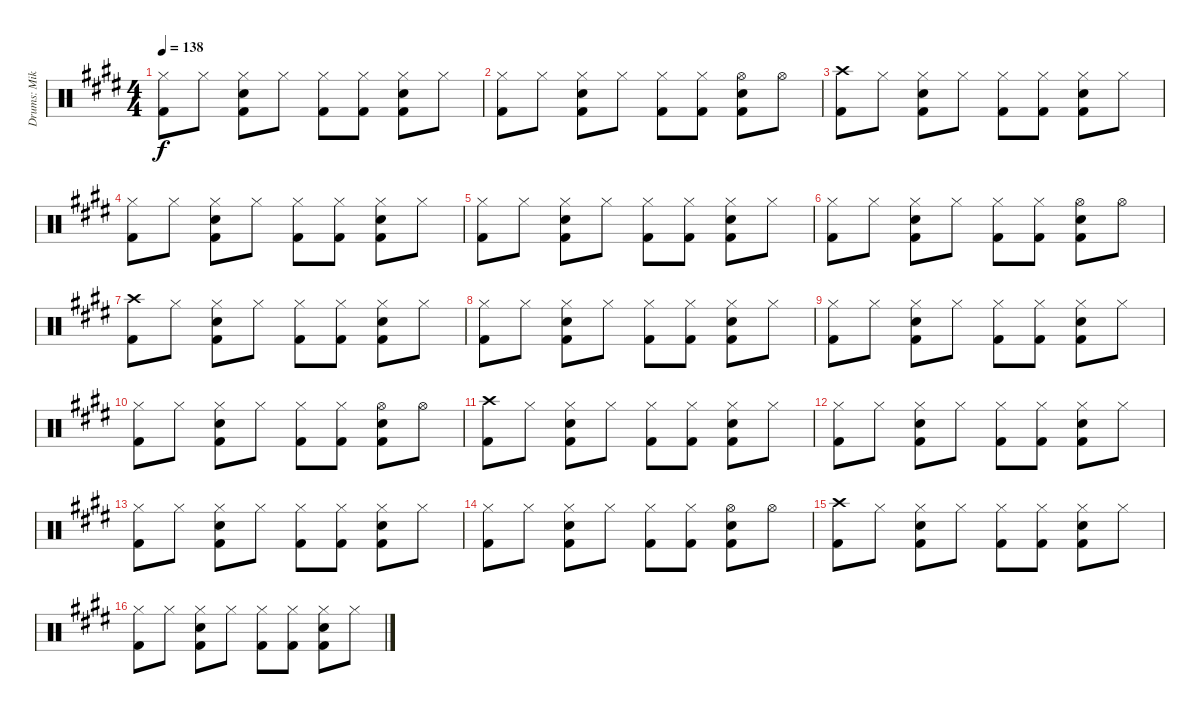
\track ("Drums: Mike" "Drums: Mik") {instrument percussion}
\staff {score}
\articulation defaults
\ts (4 4)
\tempo 138
\clef neutral
\ks e
("Hi-Hat (closed)" "Kick (hit) 2").8{dy f} "Hi-Hat (closed)".8 ("Hi-Hat (closed)" "Electric Snare (hit)" "Kick (hit) 2").8 "Hi-Hat (closed)".8 ("Hi-Hat (closed)" "Kick (hit) 2").8 ("Hi-Hat (closed)" "Kick (hit) 2").8 ("Hi-Hat (closed)" "Electric Snare (hit)" "Kick (hit) 2").8 "Hi-Hat (closed)".8 |
("Hi-Hat (closed)" "Kick (hit) 2").8 "Hi-Hat (closed)".8 ("Hi-Hat (closed)" "Electric Snare (hit)" "Kick (hit) 2").8 "Hi-Hat (closed)".8 ("Hi-Hat (closed)" "Kick (hit) 2").8 ("Hi-Hat (closed)" "Kick (hit) 2").8 ("Hi-Hat (open)" "Electric Snare (hit)" "Kick (hit) 2").8 "Hi-Hat (open)".8 |
("Crash high (hit)" "Kick (hit) 2").8 "Hi-Hat (closed)".8 ("Hi-Hat (closed)" "Electric Snare (hit)" "Kick (hit) 2").8 "Hi-Hat (closed)".8 ("Hi-Hat (closed)" "Kick (hit) 2").8 ("Hi-Hat (closed)" "Kick (hit) 2").8 ("Hi-Hat (closed)" "Electric Snare (hit)" "Kick (hit) 2").8 "Hi-Hat (closed)".8 |
("Hi-Hat (closed)" "Kick (hit) 2").8 "Hi-Hat (closed)".8 ("Hi-Hat (closed)" "Electric Snare (hit)" "Kick (hit) 2").8 "Hi-Hat (closed)".8 ("Hi-Hat (closed)" "Kick (hit) 2").8 ("Hi-Hat (closed)" "Kick (hit) 2").8 ("Hi-Hat (closed)" "Electric Snare (hit)" "Kick (hit) 2").8 "Hi-Hat (closed)".8 |
("Hi-Hat (closed)" "Kick (hit) 2").8 "Hi-Hat (closed)".8 ("Hi-Hat (closed)" "Electric Snare (hit)" "Kick (hit) 2").8 "Hi-Hat (closed)".8 ("Hi-Hat (closed)" "Kick (hit) 2").8 ("Hi-Hat (closed)" "Kick (hit) 2").8 ("Hi-Hat (closed)" "Electric Snare (hit)" "Kick (hit) 2").8 "Hi-Hat (closed)".8 |
("Hi-Hat (closed)" "Kick (hit) 2").8 "Hi-Hat (closed)".8 ("Hi-Hat (closed)" "Electric Snare (hit)" "Kick (hit) 2").8 "Hi-Hat (closed)".8 ("Hi-Hat (closed)" "Kick (hit) 2").8 ("Hi-Hat (closed)" "Kick (hit) 2").8 ("Hi-Hat (open)" "Electric Snare (hit)" "Kick (hit) 2").8 "Hi-Hat (open)".8 |
("Crash high (hit)" "Kick (hit) 2").8 "Hi-Hat (closed)".8 ("Hi-Hat (closed)" "Electric Snare (hit)" "Kick (hit) 2").8 "Hi-Hat (closed)".8 ("Hi-Hat (closed)" "Kick (hit) 2").8 ("Hi-Hat (closed)" "Kick (hit) 2").8 ("Hi-Hat (closed)" "Electric Snare (hit)" "Kick (hit) 2").8 "Hi-Hat (closed)".8 |
("Hi-Hat (closed)" "Kick (hit) 2").8 "Hi-Hat (closed)".8 ("Hi-Hat (closed)" "Electric Snare (hit)" "Kick (hit) 2").8 "Hi-Hat (closed)".8 ("Hi-Hat (closed)" "Kick (hit) 2").8 ("Hi-Hat (closed)" "Kick (hit) 2").8 ("Hi-Hat (closed)" "Electric Snare (hit)" "Kick (hit) 2").8 "Hi-Hat (closed)".8 |
("Hi-Hat (closed)" "Kick (hit) 2").8 "Hi-Hat (closed)".8 ("Hi-Hat (closed)" "Electric Snare (hit)" "Kick (hit) 2").8 "Hi-Hat (closed)".8 ("Hi-Hat (closed)" "Kick (hit) 2").8 ("Hi-Hat (closed)" "Kick (hit) 2").8 ("Hi-Hat (closed)" "Electric Snare (hit)" "Kick (hit) 2").8 "Hi-Hat (closed)".8 |
("Hi-Hat (closed)" "Kick (hit) 2").8 "Hi-Hat (closed)".8 ("Hi-Hat (closed)" "Electric Snare (hit)" "Kick (hit) 2").8 "Hi-Hat (closed)".8 ("Hi-Hat (closed)" "Kick (hit) 2").8 ("Hi-Hat (closed)" "Kick (hit) 2").8 ("Hi-Hat (open)" "Electric Snare (hit)" "Kick (hit) 2").8 "Hi-Hat (open)".8 |
("Crash high (hit)" "Kick (hit) 2").8 "Hi-Hat (closed)".8 ("Hi-Hat (closed)" "Electric Snare (hit)" "Kick (hit) 2").8 "Hi-Hat (closed)".8 ("Hi-Hat (closed)" "Kick (hit) 2").8 ("Hi-Hat (closed)" "Kick (hit) 2").8 ("Hi-Hat (closed)" "Electric Snare (hit)" "Kick (hit) 2").8 "Hi-Hat (closed)".8 |
("Hi-Hat (closed)" "Kick (hit) 2").8 "Hi-Hat (closed)".8 ("Hi-Hat (closed)" "Electric Snare (hit)" "Kick (hit) 2").8 "Hi-Hat (closed)".8 ("Hi-Hat (closed)" "Kick (hit) 2").8 ("Hi-Hat (closed)" "Kick (hit) 2").8 ("Hi-Hat (closed)" "Electric Snare (hit)" "Kick (hit) 2").8 "Hi-Hat (closed)".8 |
("Hi-Hat (closed)" "Kick (hit) 2").8 "Hi-Hat (closed)".8 ("Hi-Hat (closed)" "Electric Snare (hit)" "Kick (hit) 2").8 "Hi-Hat (closed)".8 ("Hi-Hat (closed)" "Kick (hit) 2").8 ("Hi-Hat (closed)" "Kick (hit) 2").8 ("Hi-Hat (closed)" "Electric Snare (hit)" "Kick (hit) 2").8 "Hi-Hat (closed)".8 |
("Hi-Hat (closed)" "Kick (hit) 2").8 "Hi-Hat (closed)".8 ("Hi-Hat (closed)" "Electric Snare (hit)" "Kick (hit) 2").8 "Hi-Hat (closed)".8 ("Hi-Hat (closed)" "Kick (hit) 2").8 ("Hi-Hat (closed)" "Kick (hit) 2").8 ("Hi-Hat (open)" "Electric Snare (hit)" "Kick (hit) 2").8 "Hi-Hat (open)".8 |
("Crash high (hit)" "Kick (hit) 2").8 "Hi-Hat (closed)".8 ("Hi-Hat (closed)" "Electric Snare (hit)" "Kick (hit) 2").8 "Hi-Hat (closed)".8 ("Hi-Hat (closed)" "Kick (hit) 2").8 ("Hi-Hat (closed)" "Kick (hit) 2").8 ("Hi-Hat (closed)" "Electric Snare (hit)" "Kick (hit) 2").8 "Hi-Hat (closed)".8 |
("Hi-Hat (closed)" "Kick (hit) 2").8 "Hi-Hat (closed)".8 ("Hi-Hat (closed)" "Electric Snare (hit)" "Kick (hit) 2").8 "Hi-Hat (closed)".8 ("Hi-Hat (closed)" "Kick (hit) 2").8 ("Hi-Hat (closed)" "Kick (hit) 2").8 ("Hi-Hat (closed)" "Electric Snare (hit)" "Kick (hit) 2").8 "Hi-Hat (closed)".8
